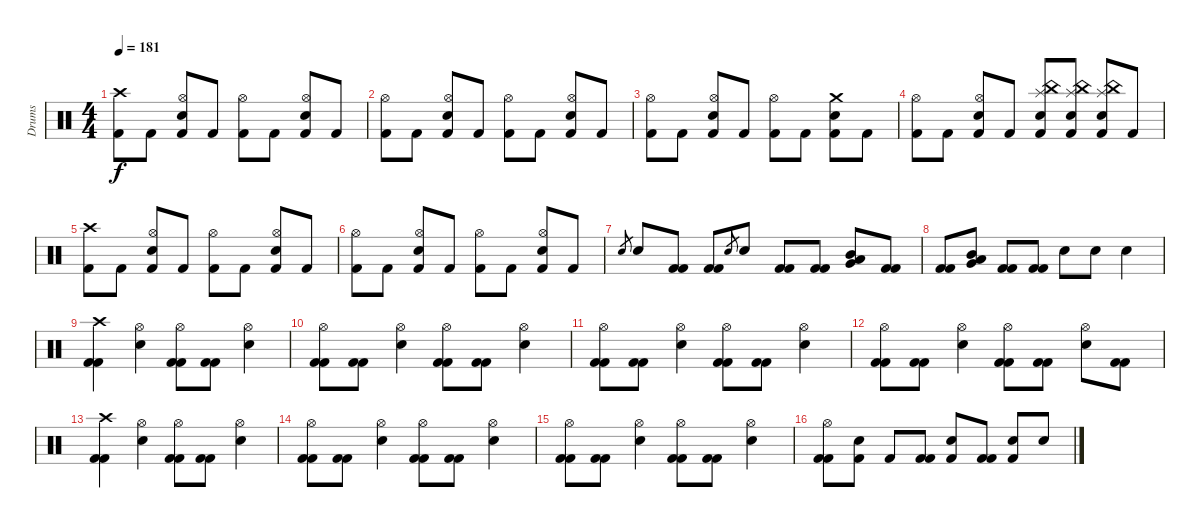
\track ("Drums" "Drums") {instrument percussion}
\staff {score}
\articulation defaults
\ts (4 4)
\tempo 181
\clef neutral
\ks c
("Crash high (hit)" "Kick (hit) 2").8{dy f} "Kick (hit) 2".8 ("Hi-Hat (open)" "Electric Snare (hit)" "Kick (hit) 2").8 "Kick (hit) 2".8 ("Hi-Hat (open)" "Kick (hit) 2").8 "Kick (hit) 2".8 ("Hi-Hat (open)" "Electric Snare (hit)" "Kick (hit) 2").8 "Kick (hit) 2".8 |
("Hi-Hat (open)" "Kick (hit) 2").8 "Kick (hit) 2".8 ("Hi-Hat (open)" "Electric Snare (hit)" "Kick (hit) 2").8 "Kick (hit) 2".8 ("Hi-Hat (open)" "Kick (hit) 2").8 "Kick (hit) 2".8 ("Hi-Hat (open)" "Electric Snare (hit)" "Kick (hit) 2").8 "Kick (hit) 2".8 |
("Hi-Hat (open)" "Kick (hit) 2").8 "Kick (hit) 2".8 ("Hi-Hat (open)" "Electric Snare (hit)" "Kick (hit) 2").8 "Kick (hit) 2".8 ("Hi-Hat (open)" "Kick (hit) 2").8 "Kick (hit) 2".8 ("Crash medium (hit)" "Electric Snare (hit)" "Kick (hit) 2").8 "Kick (hit) 2".8 |
("Hi-Hat (open)" "Kick (hit) 2").8 "Kick (hit) 2".8 ("Hi-Hat (open)" "Electric Snare (hit)" "Kick (hit) 2").8 "Kick (hit) 2".8 ("China (hit)" "Splash (hit)" "Snare (hit) 2" "Kick (hit) 2").8 ("China (hit)" "Splash (hit)" "Snare (hit) 2" "Kick (hit) 2").8 ("China (hit)" "Splash (hit)" "Snare (hit) 2" "Kick (hit) 2").8 "Kick (hit) 2".8 |
("Crash high (hit)" "Kick (hit) 2").8 "Kick (hit) 2".8 ("Hi-Hat (open)" "Electric Snare (hit)" "Kick (hit) 2").8 "Kick (hit) 2".8 ("Hi-Hat (open)" "Kick (hit) 2").8 "Kick (hit) 2".8 ("Hi-Hat (open)" "Electric Snare (hit)" "Kick (hit) 2").8 "Kick (hit) 2".8 |
("Hi-Hat (open)" "Kick (hit) 2").8 "Kick (hit) 2".8 ("Hi-Hat (open)" "Electric Snare (hit)" "Kick (hit) 2").8 "Kick (hit) 2".8 ("Hi-Hat (open)" "Kick (hit) 2").8 "Kick (hit) 2".8 ("Hi-Hat (open)" "Electric Snare (hit)" "Kick (hit) 2").8 "Kick (hit) 2".8 |
"Electric Snare (hit)".8{gr} "Electric Snare (hit)".8 ("Kick (hit) 2" "Kick (hit) 2").8 ("Kick (hit) 2" "Kick (hit) 2").8 "Electric Snare (hit)".8{gr} "Electric Snare (hit)".8 ("Kick (hit) 2" "Kick (hit) 2").8 ("Kick (hit) 2" "Kick (hit) 2").8 ("Mid Tom (hit)" "Low Tom (hit)" "Very Low Tom (hit)").8 ("Kick (hit) 2" "Kick (hit) 2").8 |
("Kick (hit) 2" "Kick (hit) 2").8 ("Mid Tom (hit)" "Low Tom (hit)" "Very Low Tom (hit)").8 ("Kick (hit) 2" "Kick (hit) 2").8 ("Kick (hit) 2" "Kick (hit) 2").8 "Snare (hit) 2".8 "Snare (hit) 2".8 "Snare (hit) 2".4 |
("Crash high (hit)" "Kick (hit) 2" "Kick (hit) 2").4 ("Hi-Hat (open)" "Electric Snare (hit)").4 ("Hi-Hat (open)" "Kick (hit) 2" "Kick (hit) 2").8 ("Kick (hit) 2" "Kick (hit) 2").8 ("Hi-Hat (open)" "Electric Snare (hit)").4 |
("Hi-Hat (open)" "Kick (hit) 2" "Kick (hit) 2").8 ("Kick (hit) 2" "Kick (hit) 2").8 ("Hi-Hat (open)" "Electric Snare (hit)").4 ("Hi-Hat (open)" "Kick (hit) 2" "Kick (hit) 2").8 ("Kick (hit) 2" "Kick (hit) 2").8 ("Hi-Hat (open)" "Electric Snare (hit)").4 |
("Hi-Hat (open)" "Kick (hit) 2" "Kick (hit) 2").8 ("Kick (hit) 2" "Kick (hit) 2").8 ("Hi-Hat (open)" "Electric Snare (hit)").4 ("Hi-Hat (open)" "Kick (hit) 2" "Kick (hit) 2").8 ("Kick (hit) 2" "Kick (hit) 2").8 ("Hi-Hat (open)" "Electric Snare (hit)").4 |
("Hi-Hat (open)" "Kick (hit) 2" "Kick (hit) 2").8 ("Kick (hit) 2" "Kick (hit) 2").8 ("Hi-Hat (open)" "Electric Snare (hit)").4 ("Hi-Hat (open)" "Kick (hit) 2" "Kick (hit) 2").8 ("Kick (hit) 2" "Kick (hit) 2").8 ("Hi-Hat (open)" "Electric Snare (hit)").8 ("Kick (hit) 2" "Kick (hit) 2").8 |
("Crash high (hit)" "Kick (hit) 2" "Kick (hit) 2").4 ("Hi-Hat (open)" "Electric Snare (hit)").4 ("Hi-Hat (open)" "Kick (hit) 2" "Kick (hit) 2").8 ("Kick (hit) 2" "Kick (hit) 2").8 ("Hi-Hat (open)" "Electric Snare (hit)").4 |
("Hi-Hat (open)" "Kick (hit) 2" "Kick (hit) 2").8 ("Kick (hit) 2" "Kick (hit) 2").8 ("Hi-Hat (open)" "Electric Snare (hit)").4 ("Hi-Hat (open)" "Kick (hit) 2" "Kick (hit) 2").8 ("Kick (hit) 2" "Kick (hit) 2").8 ("Hi-Hat (open)" "Electric Snare (hit)").4 |
("Hi-Hat (open)" "Kick (hit) 2" "Kick (hit) 2").8 ("Kick (hit) 2" "Kick (hit) 2").8 ("Hi-Hat (open)" "Electric Snare (hit)").4 ("Hi-Hat (open)" "Kick (hit) 2" "Kick (hit) 2").8 ("Kick (hit) 2" "Kick (hit) 2").8 ("Hi-Hat (open)" "Electric Snare (hit)").4 |
("Hi-Hat (open)" "Kick (hit) 2" "Kick (hit) 2").8 ("Electric Snare (hit)" "Kick (hit) 2").8 "Kick (hit) 2".8 ("Kick (hit) 2" "Kick (hit) 2").8 ("Electric Snare (hit)" "Kick (hit) 2").8 ("Kick (hit) 2" "Kick (hit) 2").8 ("Electric Snare (hit)" "Kick (hit) 2").8 "Snare (hit) 2".8
